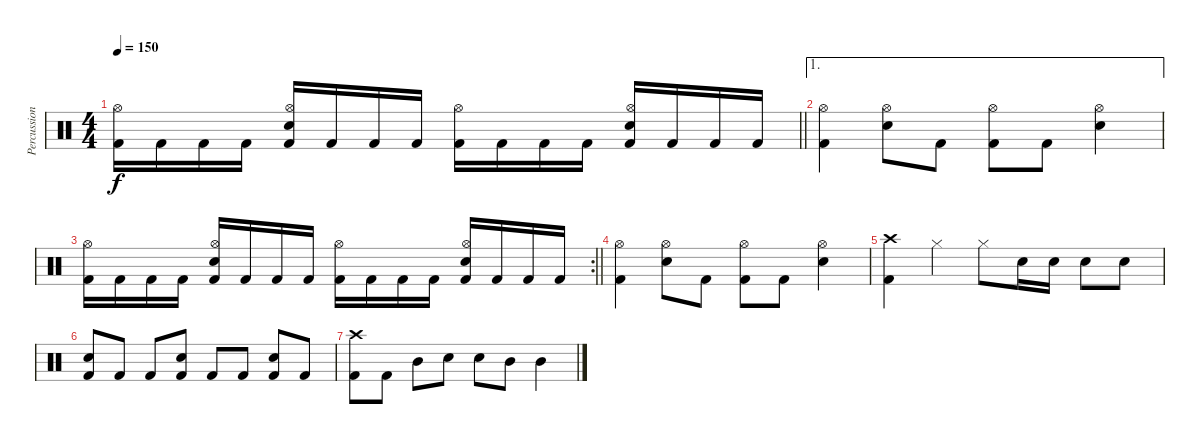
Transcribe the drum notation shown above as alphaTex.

\track ("Percussioni" "Percussion") {instrument percussion}
\staff {score}
\articulation defaults
\ts (4 4)
\tempo 150
\clef neutral
\barLineRight lightlight
\ks c
("Kick (hit) 2" "Hi-Hat (open)").16{dy f} "Kick (hit) 2".16 "Kick (hit) 2".16 "Kick (hit) 2".16 ("Kick (hit) 2" "Snare (hit) 2" "Hi-Hat (open)").16 "Kick (hit) 2".16 "Kick (hit) 2".16 "Kick (hit) 2".16 ("Kick (hit) 2" "Hi-Hat (open)").16 "Kick (hit) 2".16 "Kick (hit) 2".16 "Kick (hit) 2".16 ("Kick (hit) 2" "Snare (hit) 2" "Hi-Hat (open)").16 "Kick (hit) 2".16 "Kick (hit) 2".16 "Kick (hit) 2".16 |
\ae 1
("Kick (hit) 2" "Hi-Hat (open)").4 ("Snare (hit) 2" "Hi-Hat (open)").8 "Kick (hit) 2".8 ("Kick (hit) 2" "Hi-Hat (open)").8 "Kick (hit) 2".8 ("Snare (hit) 2" "Hi-Hat (open)").4 |
\rc 2
\barLineRight lightlight
("Kick (hit) 2" "Hi-Hat (open)").16 "Kick (hit) 2".16 "Kick (hit) 2".16 "Kick (hit) 2".16 ("Kick (hit) 2" "Snare (hit) 2" "Hi-Hat (open)").16 "Kick (hit) 2".16 "Kick (hit) 2".16 "Kick (hit) 2".16 ("Kick (hit) 2" "Hi-Hat (open)").16 "Kick (hit) 2".16 "Kick (hit) 2".16 "Kick (hit) 2".16 ("Kick (hit) 2" "Snare (hit) 2" "Hi-Hat (open)").16 "Kick (hit) 2".16 "Kick (hit) 2".16 "Kick (hit) 2".16 |
("Kick (hit) 2" "Hi-Hat (open)").4 ("Snare (hit) 2" "Hi-Hat (open)").8 "Kick (hit) 2".8 ("Kick (hit) 2" "Hi-Hat (open)").8 "Kick (hit) 2".8 ("Snare (hit) 2" "Hi-Hat (open)").4 |
("Kick (hit) 2" "Crash high (hit)").4 "Hi-Hat (closed)".4 "Hi-Hat (closed)".8 "Snare (hit) 2".16 "Snare (hit) 2".16 "Snare (hit) 2".8 "Snare (hit) 2".8 |
("Snare (hit) 2" "Kick (hit) 2").8 "Kick (hit) 2".8 "Kick (hit) 2".8 ("Snare (hit) 2" "Kick (hit) 2").8 "Kick (hit) 2".8 "Kick (hit) 2".8 ("Snare (hit) 2" "Kick (hit) 2").8 "Kick (hit) 2".8 |
("Kick (hit) 2" "Crash high (hit)").8 "Kick (hit) 2".8 "Mid Tom (hit)".8 "Snare (hit) 2".8 "Snare (hit) 2".8 "Mid Tom (hit)".8 "Mid Tom (hit)".4
